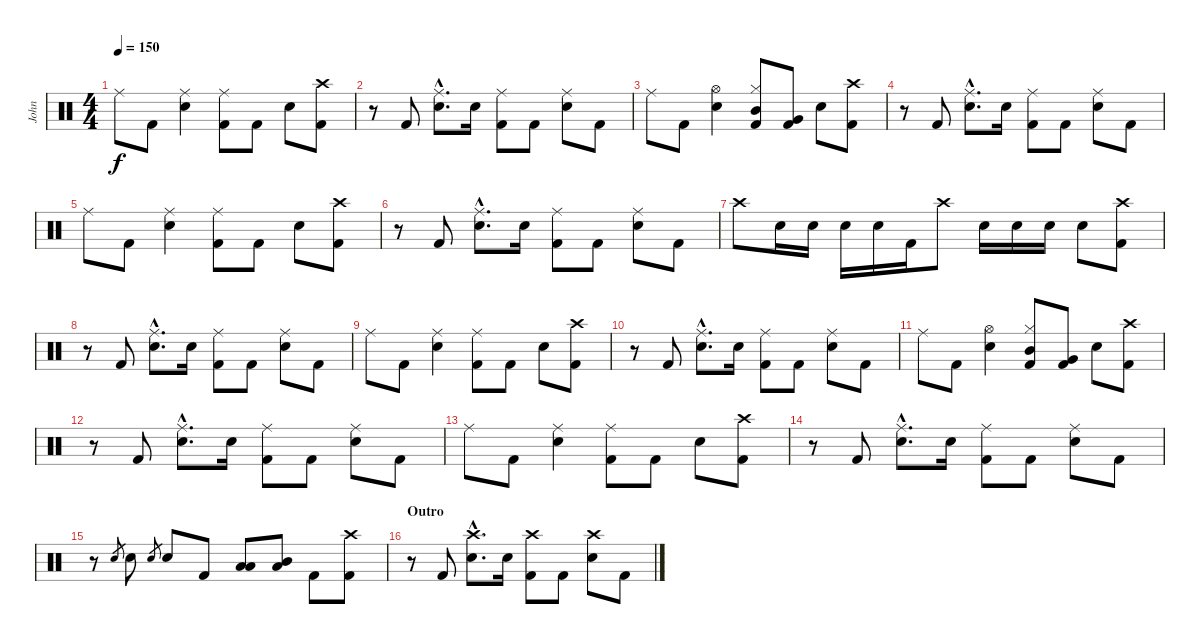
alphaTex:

\track ("John" "John") {instrument percussion}
\staff {score}
\articulation defaults
\ts (4 4)
\tempo 150
\clef neutral
\ks c "Ride (middle)".8{dy f} "Kick (hit) 2".8
("Ride (middle)" "Electric Snare (hit)").4 ("Ride (middle)" "Kick (hit) 2").8 "Kick (hit) 2".8 "Electric Snare (hit)".8 ("Crash high (hit)" "Kick (hit) 2").8 |
r.8 "Kick (hit) 2".8 ("Ride (middle)"{hac} "Electric Snare (hit)"{hac}).8{d} "Electric Snare (hit)".16 ("Ride (middle)" "Kick (hit) 2").8 "Kick (hit) 2".8 ("Ride (middle)" "Electric Snare (hit)").8 "Kick (hit) 2".8 |
"Ride (middle)".8 "Kick (hit) 2".8 ("Hi-Hat (open)" "Electric Snare (hit)").4 ("Hi-Hat (closed)" "Mid Tom (hit)" "Kick (hit) 2").8 ("Very Low Tom (hit)" "Kick (hit) 2").8 "Electric Snare (hit)".8 ("Crash high (hit)" "Kick (hit) 2").8 |
r.8 "Kick (hit) 2".8 ("Ride (middle)"{hac} "Electric Snare (hit)"{hac}).8{d} "Electric Snare (hit)".16 ("Ride (middle)" "Kick (hit) 2").8 "Kick (hit) 2".8 ("Ride (middle)" "Electric Snare (hit)").8 "Kick (hit) 2".8 |
"Ride (middle)".8 "Kick (hit) 2".8 ("Ride (middle)" "Electric Snare (hit)").4 ("Ride (middle)" "Kick (hit) 2").8 "Kick (hit) 2".8 "Electric Snare (hit)".8 ("Crash high (hit)" "Kick (hit) 2").8 |
r.8 "Kick (hit) 2".8 ("Ride (middle)"{hac} "Electric Snare (hit)"{hac}).8{d} "Electric Snare (hit)".16 ("Ride (middle)" "Kick (hit) 2").8 "Kick (hit) 2".8 ("Ride (middle)" "Electric Snare (hit)").8 "Kick (hit) 2".8 |
"Crash high (hit)".8 "Electric Snare (hit)".16 "Electric Snare (hit)".16 "Electric Snare (hit)".16 "Electric Snare (hit)".16 "Kick (hit) 2".16 "Crash high (hit)".8 "Electric Snare (hit)".16 "Electric Snare (hit)".16 "Electric Snare (hit)".16 "Electric Snare (hit)".8 ("Crash high (hit)" "Kick (hit) 2").8 |
r.8 "Kick (hit) 2".8 ("Ride (middle)"{hac} "Electric Snare (hit)"{hac}).8{d} "Electric Snare (hit)".16 ("Ride (middle)" "Kick (hit) 2").8 "Kick (hit) 2".8 ("Ride (middle)" "Electric Snare (hit)").8 "Kick (hit) 2".8 |
"Ride (middle)".8 "Kick (hit) 2".8 ("Ride (middle)" "Electric Snare (hit)").4 ("Ride (middle)" "Kick (hit) 2").8 "Kick (hit) 2".8 "Electric Snare (hit)".8 ("Crash high (hit)" "Kick (hit) 2").8 |
r.8 "Kick (hit) 2".8 ("Ride (middle)"{hac} "Electric Snare (hit)"{hac}).8{d} "Electric Snare (hit)".16 ("Ride (middle)" "Kick (hit) 2").8 "Kick (hit) 2".8 ("Ride (middle)" "Electric Snare (hit)").8 "Kick (hit) 2".8 |
"Ride (middle)".8 "Kick (hit) 2".8 ("Hi-Hat (open)" "Electric Snare (hit)").4 ("Hi-Hat (closed)" "Mid Tom (hit)" "Kick (hit) 2").8 ("Very Low Tom (hit)" "Kick (hit) 2").8 "Electric Snare (hit)".8 ("Crash high (hit)" "Kick (hit) 2").8 |
r.8 "Kick (hit) 2".8 ("Ride (middle)"{hac} "Electric Snare (hit)"{hac}).8{d} "Electric Snare (hit)".16 ("Ride (middle)" "Kick (hit) 2").8 "Kick (hit) 2".8 ("Ride (middle)" "Electric Snare (hit)").8 "Kick (hit) 2".8 |
"Ride (middle)".8 "Kick (hit) 2".8 ("Ride (middle)" "Electric Snare (hit)").4 ("Ride (middle)" "Kick (hit) 2").8 "Kick (hit) 2".8 "Electric Snare (hit)".8 ("Crash high (hit)" "Kick (hit) 2").8 |
r.8 "Kick (hit) 2".8 ("Ride (middle)"{hac} "Electric Snare (hit)"{hac}).8{d} "Electric Snare (hit)".16 ("Ride (middle)" "Kick (hit) 2").8 "Kick (hit) 2".8 ("Ride (middle)" "Electric Snare (hit)").8 "Kick (hit) 2".8 |
r.8 "Electric Snare (hit)".8{gr} "Electric Snare (hit)".8 "Electric Snare (hit)".8{gr} "Electric Snare (hit)".8 "Kick (hit) 2".8 ("Low Tom (hit)" "Low Floor Tom (hit)").8 ("Mid Tom (hit)" "Low Floor Tom (hit)").8 "Kick (hit) 2".8 ("Crash high (hit)" "Kick (hit) 2").8 |
\section ("" "Outro")
r.8 "Kick (hit) 2".8 ("Crash high (hit)"{hac} "Electric Snare (hit)"{hac}).8{d} "Electric Snare (hit)".16 ("Crash high (hit)" "Kick (hit) 2").8 "Kick (hit) 2".8 ("Crash high (hit)" "Electric Snare (hit)").8 "Kick (hit) 2".8
